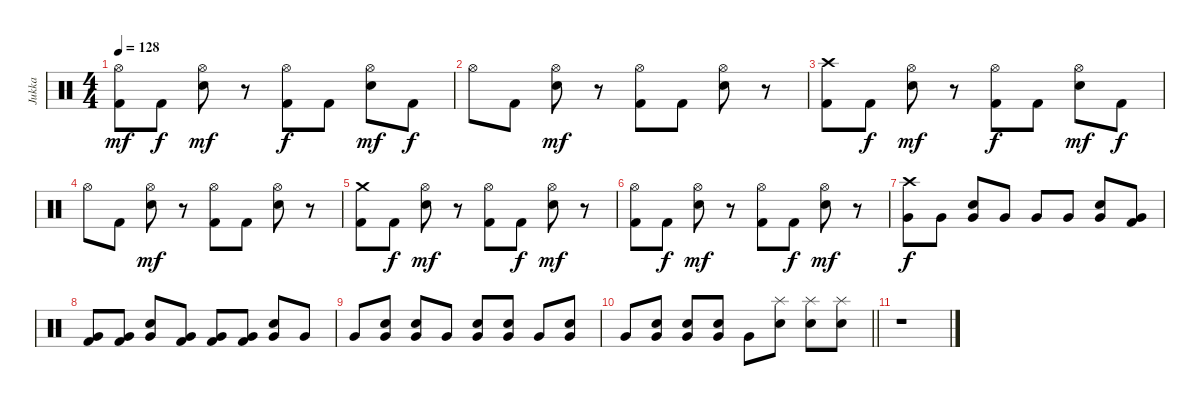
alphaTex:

\track ("Jukka" "Jukka") {instrument percussion}
\staff {score}
\articulation defaults
\ts (4 4)
\tempo 128
\clef neutral
\ks c
("Kick (hit) 2" "Hi-Hat (open)").8{dy mf} "Kick (hit) 2".8{dy f} ("Electric Snare (hit)" "Hi-Hat (open)").8{dy mf} r.8 ("Kick (hit) 2" "Hi-Hat (open)").8{dy f} "Kick (hit) 2".8 ("Electric Snare (hit)" "Hi-Hat (open)").8{dy mf} "Kick (hit) 2".8{dy f} |
"Hi-Hat (open)".8 "Kick (hit) 2".8 ("Electric Snare (hit)" "Hi-Hat (open)").8{dy mf} r.8 ("Kick (hit) 2" "Hi-Hat (open)").8 "Kick (hit) 2".8 ("Electric Snare (hit)" "Hi-Hat (open)").8 r.8 |
("Kick (hit) 2" "Crash high (hit)").8 "Kick (hit) 2".8{dy f} ("Electric Snare (hit)" "Hi-Hat (open)").8{dy mf} r.8 ("Kick (hit) 2" "Hi-Hat (open)").8{dy f} "Kick (hit) 2".8 ("Electric Snare (hit)" "Hi-Hat (open)").8{dy mf} "Kick (hit) 2".8{dy f} |
"Hi-Hat (open)".8 "Kick (hit) 2".8 ("Electric Snare (hit)" "Hi-Hat (open)").8{dy mf} r.8 ("Kick (hit) 2" "Hi-Hat (open)").8 "Kick (hit) 2".8 ("Electric Snare (hit)" "Hi-Hat (open)").8 r.8 |
("Kick (hit) 2" "Crash medium (hit)").8 "Kick (hit) 2".8{dy f} ("Electric Snare (hit)" "Hi-Hat (open)").8{dy mf} r.8 ("Kick (hit) 2" "Hi-Hat (open)").8 "Kick (hit) 2".8{dy f} ("Electric Snare (hit)" "Hi-Hat (open)").8{dy mf} r.8 |
("Kick (hit) 2" "Hi-Hat (open)").8 "Kick (hit) 2".8{dy f} ("Electric Snare (hit)" "Hi-Hat (open)").8{dy mf} r.8 ("Kick (hit) 2" "Hi-Hat (open)").8 "Kick (hit) 2".8{dy f} ("Electric Snare (hit)" "Hi-Hat (open)").8{dy mf} r.8 |
("Crash high (hit)" "Very Low Tom (hit)").8{dy f} "Very Low Tom (hit)".8 ("Electric Snare (hit)" "Very Low Tom (hit)").8 "Very Low Tom (hit)".8 "Very Low Tom (hit)".8 "Very Low Tom (hit)".8 ("Electric Snare (hit)" "Very Low Tom (hit)").8 ("Very Low Tom (hit)" "Kick (hit) 2").8 |
("Very Low Tom (hit)" "Kick (hit) 2").8 ("Very Low Tom (hit)" "Kick (hit) 2").8 ("Electric Snare (hit)" "Very Low Tom (hit)").8 ("Very Low Tom (hit)" "Kick (hit) 2").8 ("Very Low Tom (hit)" "Kick (hit) 2").8 ("Very Low Tom (hit)" "Kick (hit) 2").8 ("Electric Snare (hit)" "Very Low Tom (hit)").8 "Very Low Tom (hit)".8 |
"Very Low Tom (hit)".8 ("Electric Snare (hit)" "Very Low Tom (hit)").8 ("Electric Snare (hit)" "Very Low Tom (hit)").8 "Very Low Tom (hit)".8 ("Electric Snare (hit)" "Very Low Tom (hit)").8 ("Electric Snare (hit)" "Very Low Tom (hit)").8 "Very Low Tom (hit)".8 ("Electric Snare (hit)" "Very Low Tom (hit)").8 |
\barLineRight lightlight "Very Low Tom (hit)".8
("Electric Snare (hit)" "Very Low Tom (hit)").8 ("Electric Snare (hit)" "Very Low Tom (hit)").8 ("Electric Snare (hit)" "Very Low Tom (hit)").8 "Very Low Tom (hit)".8 ("Electric Snare (hit)" "Splash (hit)").8 ("Electric Snare (hit)" "Splash (hit)").8 ("Electric Snare (hit)" "Splash (hit)").8 |
r.1
